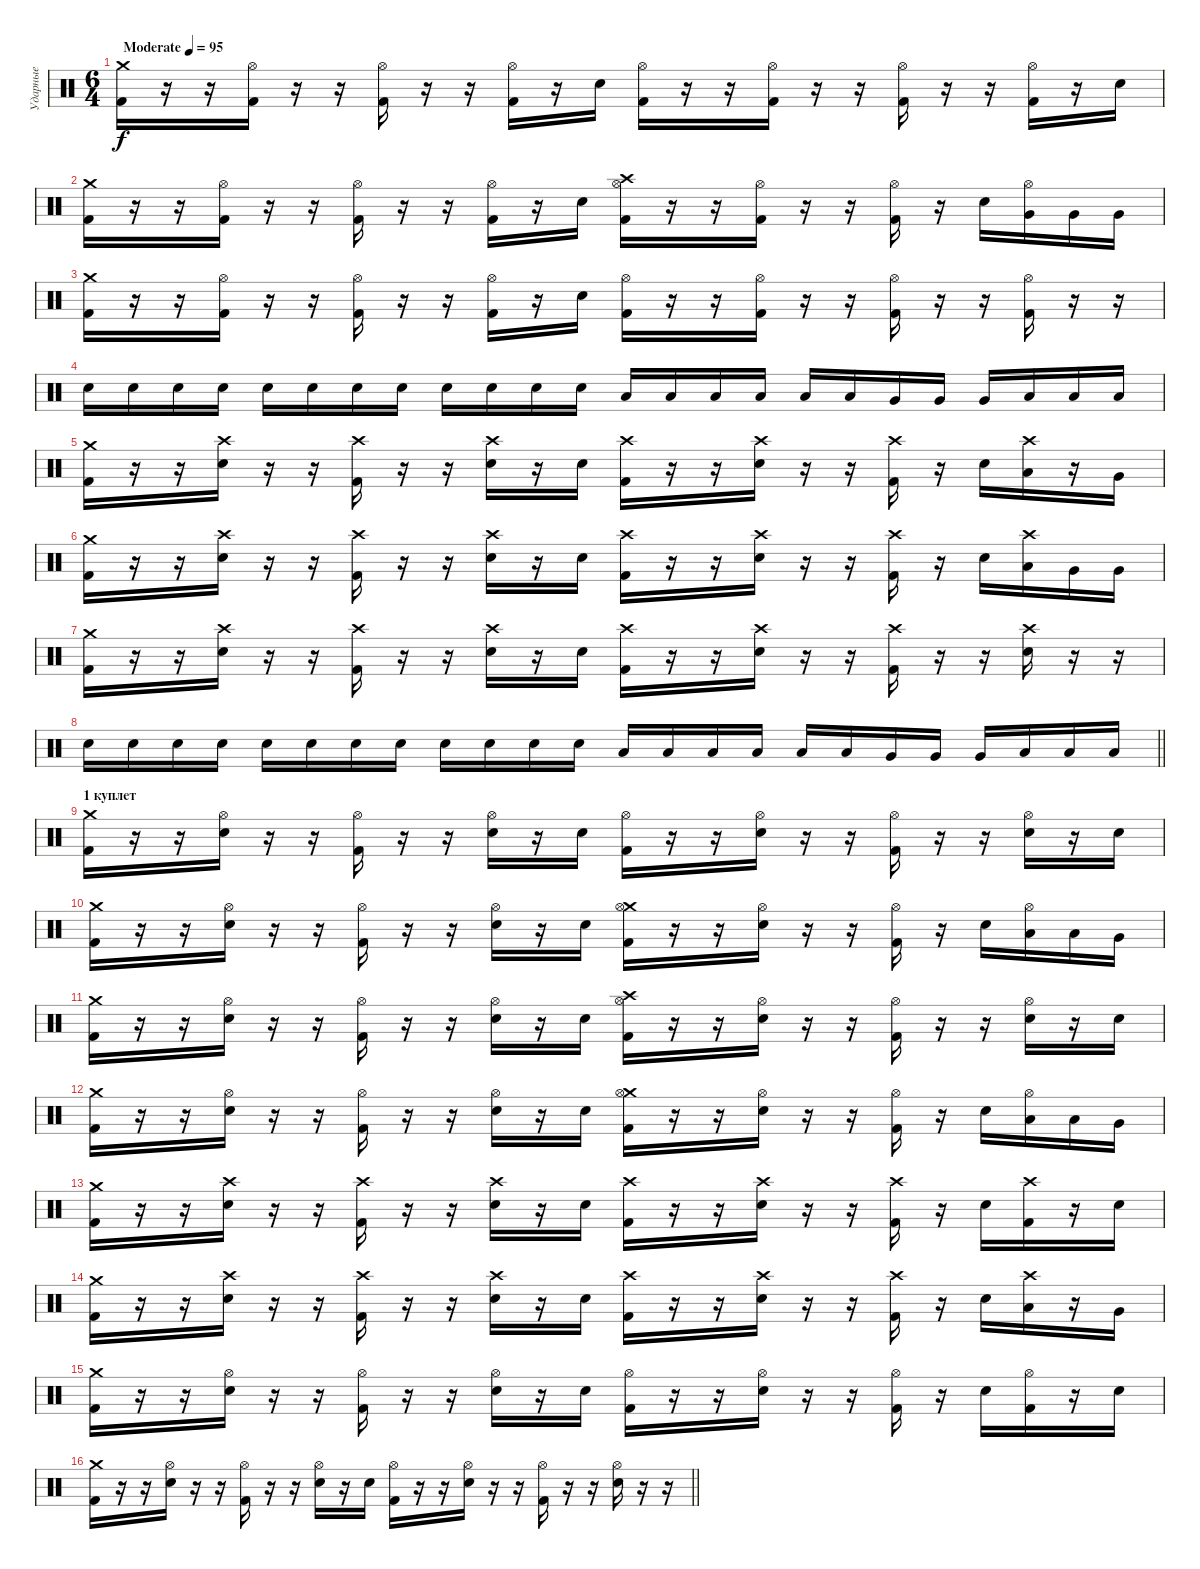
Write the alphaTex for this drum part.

\track ("Ударные" "Ударные") {instrument percussion}
\staff {score}
\articulation defaults
\ts (6 4)
\tempo (95 "Moderate")
\clef neutral
\ks c
("Crash medium (hit)" "Kick (hit) 2").16{dy f} r.16 r.16 ("Hi-Hat (open)" "Kick (hit) 2").16 r.16 r.16 ("Hi-Hat (open)" "Kick (hit) 2").16 r.16 r.16 ("Hi-Hat (open)" "Kick (hit) 2").16 r.16 "Electric Snare (hit)".16 ("Hi-Hat (open)" "Kick (hit) 2").16 r.16 r.16 ("Hi-Hat (open)" "Kick (hit) 2").16 r.16 r.16 ("Hi-Hat (open)" "Kick (hit) 2").16 r.16 r.16 ("Hi-Hat (open)" "Kick (hit) 2").16 r.16 "Electric Snare (hit)".16 |
("Crash medium (hit)" "Kick (hit) 2").16 r.16 r.16 ("Hi-Hat (open)" "Kick (hit) 2").16 r.16 r.16 ("Hi-Hat (open)" "Kick (hit) 2").16 r.16 r.16 ("Hi-Hat (open)" "Kick (hit) 2").16 r.16 "Electric Snare (hit)".16 ("Crash high (hit)" "Hi-Hat (open)" "Kick (hit) 2").16 r.16 r.16 ("Hi-Hat (open)" "Kick (hit) 2").16 r.16 r.16 ("Hi-Hat (open)" "Kick (hit) 2").16 r.16 "Electric Snare (hit)".16 ("Very Low Tom (hit)" "Hi-Hat (open)").16 "Very Low Tom (hit)".16 "Very Low Tom (hit)".16 |
("Crash medium (hit)" "Kick (hit) 2").16 r.16 r.16 ("Hi-Hat (open)" "Kick (hit) 2").16 r.16 r.16 ("Hi-Hat (open)" "Kick (hit) 2").16 r.16 r.16 ("Hi-Hat (open)" "Kick (hit) 2").16 r.16 "Electric Snare (hit)".16 ("Hi-Hat (open)" "Kick (hit) 2").16 r.16 r.16 ("Hi-Hat (open)" "Kick (hit) 2").16 r.16 r.16 ("Hi-Hat (open)" "Kick (hit) 2").16 r.16 r.16 ("Hi-Hat (open)" "Kick (hit) 2").16 r.16 r.16 |
"Electric Snare (hit)".16 "Electric Snare (hit)".16 "Electric Snare (hit)".16 "Electric Snare (hit)".16 "Electric Snare (hit)".16 "Electric Snare (hit)".16 "Electric Snare (hit)".16 "Electric Snare (hit)".16 "Electric Snare (hit)".16 "Electric Snare (hit)".16 "Electric Snare (hit)".16 "Electric Snare (hit)".16 "Low Tom (hit)".16 "Low Tom (hit)".16 "Low Tom (hit)".16 "Low Tom (hit)".16 "Low Tom (hit)".16 "Low Tom (hit)".16 "Very Low Tom (hit)".16 "Very Low Tom (hit)".16 "Very Low Tom (hit)".16 "Low Floor Tom (hit)".16 "Low Floor Tom (hit)".16 "Low Floor Tom (hit)".16 |
("Crash medium (hit)" "Kick (hit) 2").16 r.16 r.16 ("Crash high (hit)" "Electric Snare (hit)").16 r.16 r.16 ("Crash high (hit)" "Kick (hit) 2").16 r.16 r.16 ("Crash high (hit)" "Electric Snare (hit)").16 r.16 "Electric Snare (hit)".16 ("Crash high (hit)" "Kick (hit) 2").16 r.16 r.16 ("Crash high (hit)" "Electric Snare (hit)").16 r.16 r.16 ("Crash high (hit)" "Kick (hit) 2").16 r.16 "Electric Snare (hit)".16 ("Crash high (hit)" "Low Floor Tom (hit)").16 r.16 "Very Low Tom (hit)".16 |
("Crash medium (hit)" "Kick (hit) 2").16 r.16 r.16 ("Crash high (hit)" "Electric Snare (hit)").16 r.16 r.16 ("Crash high (hit)" "Kick (hit) 2").16 r.16 r.16 ("Crash high (hit)" "Electric Snare (hit)").16 r.16 "Electric Snare (hit)".16 ("Crash high (hit)" "Kick (hit) 2").16 r.16 r.16 ("Crash high (hit)" "Electric Snare (hit)").16 r.16 r.16 ("Crash high (hit)" "Kick (hit) 2").16 r.16 "Electric Snare (hit)".16 ("Crash high (hit)" "Low Floor Tom (hit)").16 "Very Low Tom (hit)".16 "Very Low Tom (hit)".16 |
("Crash medium (hit)" "Kick (hit) 2").16 r.16 r.16 ("Crash high (hit)" "Electric Snare (hit)").16 r.16 r.16 ("Crash high (hit)" "Kick (hit) 2").16 r.16 r.16 ("Crash high (hit)" "Electric Snare (hit)").16 r.16 "Electric Snare (hit)".16 ("Crash high (hit)" "Kick (hit) 2").16 r.16 r.16 ("Crash high (hit)" "Electric Snare (hit)").16 r.16 r.16 ("Crash high (hit)" "Kick (hit) 2").16 r.16 r.16 ("Crash high (hit)" "Electric Snare (hit)").16 r.16 r.16 |
\barLineRight lightlight "Electric Snare (hit)".16 "Electric Snare (hit)".16 "Electric Snare (hit)".16 "Electric Snare (hit)".16 "Electric Snare (hit)".16 "Electric Snare (hit)".16 "Electric Snare (hit)".16 "Electric Snare (hit)".16 "Electric Snare (hit)".16 "Electric Snare (hit)".16 "Electric Snare (hit)".16 "Electric Snare (hit)".16 "Low Tom (hit)".16 "Low Tom (hit)".16 "Low Tom (hit)".16 "Low Tom (hit)".16 "Low Tom (hit)".16 "Low Tom (hit)".16 "Very Low Tom (hit)".16 "Very Low Tom (hit)".16 "Very Low Tom (hit)".16 "Low Floor Tom (hit)".16 "Low Floor Tom (hit)".16 "Low Floor Tom (hit)".16
|
\section ("" "1 куплет")
("Crash medium (hit)" "Kick (hit) 2").16 r.16 r.16 ("Hi-Hat (open)" "Electric Snare (hit)").16 r.16 r.16 ("Hi-Hat (open)" "Kick (hit) 2").16 r.16 r.16 ("Hi-Hat (open)" "Electric Snare (hit)").16 r.16 "Electric Snare (hit)".16 ("Hi-Hat (open)" "Kick (hit) 2").16 r.16 r.16 ("Hi-Hat (open)" "Electric Snare (hit)").16 r.16 r.16 ("Hi-Hat (open)" "Kick (hit) 2").16 r.16 r.16 ("Hi-Hat (open)" "Electric Snare (hit)").16 r.16 "Electric Snare (hit)".16 |
("Crash medium (hit)" "Kick (hit) 2").16 r.16 r.16 ("Hi-Hat (open)" "Electric Snare (hit)").16 r.16 r.16 ("Hi-Hat (open)" "Kick (hit) 2").16 r.16 r.16 ("Hi-Hat (open)" "Electric Snare (hit)").16 r.16 "Electric Snare (hit)".16 ("Crash medium (hit)" "Hi-Hat (open)" "Kick (hit) 2").16 r.16 r.16 ("Hi-Hat (open)" "Electric Snare (hit)").16 r.16 r.16 ("Hi-Hat (open)" "Kick (hit) 2").16 r.16 "Electric Snare (hit)".16 ("Low Floor Tom (hit)" "Hi-Hat (open)").16 "Low Floor Tom (hit)".16 "Very Low Tom (hit)".16 |
("Crash medium (hit)" "Kick (hit) 2").16 r.16 r.16 ("Hi-Hat (open)" "Electric Snare (hit)").16 r.16 r.16 ("Hi-Hat (open)" "Kick (hit) 2").16 r.16 r.16 ("Hi-Hat (open)" "Electric Snare (hit)").16 r.16 "Electric Snare (hit)".16 ("Crash high (hit)" "Hi-Hat (open)" "Kick (hit) 2").16 r.16 r.16 ("Hi-Hat (open)" "Electric Snare (hit)").16 r.16 r.16 ("Hi-Hat (open)" "Kick (hit) 2").16 r.16 r.16 ("Hi-Hat (open)" "Electric Snare (hit)").16 r.16 "Electric Snare (hit)".16 |
("Crash medium (hit)" "Kick (hit) 2").16 r.16 r.16 ("Hi-Hat (open)" "Electric Snare (hit)").16 r.16 r.16 ("Hi-Hat (open)" "Kick (hit) 2").16 r.16 r.16 ("Hi-Hat (open)" "Electric Snare (hit)").16 r.16 "Electric Snare (hit)".16 ("Crash medium (hit)" "Hi-Hat (open)" "Kick (hit) 2").16 r.16 r.16 ("Hi-Hat (open)" "Electric Snare (hit)").16 r.16 r.16 ("Hi-Hat (open)" "Kick (hit) 2").16 r.16 "Electric Snare (hit)".16 ("Low Floor Tom (hit)" "Hi-Hat (open)").16 "Low Floor Tom (hit)".16 "Very Low Tom (hit)".16 |
("Crash medium (hit)" "Kick (hit) 2").16 r.16 r.16 ("Crash high (hit)" "Electric Snare (hit)").16 r.16 r.16 ("Crash high (hit)" "Kick (hit) 2").16 r.16 r.16 ("Crash high (hit)" "Electric Snare (hit)").16 r.16 "Electric Snare (hit)".16 ("Crash high (hit)" "Kick (hit) 2").16 r.16 r.16 ("Crash high (hit)" "Electric Snare (hit)").16 r.16 r.16 ("Crash high (hit)" "Kick (hit) 2").16 r.16 "Electric Snare (hit)".16 ("Crash high (hit)" "Kick (hit) 2").16 r.16 "Electric Snare (hit)".16 |
("Crash medium (hit)" "Kick (hit) 2").16 r.16 r.16 ("Crash high (hit)" "Electric Snare (hit)").16 r.16 r.16 ("Crash high (hit)" "Kick (hit) 2").16 r.16 r.16 ("Crash high (hit)" "Electric Snare (hit)").16 r.16 "Electric Snare (hit)".16 ("Crash high (hit)" "Kick (hit) 2").16 r.16 r.16 ("Crash high (hit)" "Electric Snare (hit)").16 r.16 r.16 ("Crash high (hit)" "Kick (hit) 2").16 r.16 "Electric Snare (hit)".16 ("Crash high (hit)" "Low Floor Tom (hit)").16 r.16 "Very Low Tom (hit)".16 |
("Crash medium (hit)" "Kick (hit) 2").16 r.16 r.16 ("Hi-Hat (open)" "Electric Snare (hit)").16 r.16 r.16 ("Hi-Hat (open)" "Kick (hit) 2").16 r.16 r.16 ("Hi-Hat (open)" "Electric Snare (hit)").16 r.16 "Electric Snare (hit)".16 ("Hi-Hat (open)" "Kick (hit) 2").16 r.16 r.16 ("Hi-Hat (open)" "Electric Snare (hit)").16 r.16 r.16 ("Hi-Hat (open)" "Kick (hit) 2").16 r.16 "Electric Snare (hit)".16 ("Hi-Hat (open)" "Kick (hit) 2").16 r.16 "Electric Snare (hit)".16 |
\barLineRight lightlight
("Crash medium (hit)" "Kick (hit) 2").16 r.16 r.16 ("Hi-Hat (open)" "Electric Snare (hit)").16 r.16 r.16 ("Hi-Hat (open)" "Kick (hit) 2").16 r.16 r.16 ("Hi-Hat (open)" "Electric Snare (hit)").16 r.16 "Electric Snare (hit)".16 ("Hi-Hat (open)" "Kick (hit) 2").16 r.16 r.16 ("Hi-Hat (open)" "Electric Snare (hit)").16 r.16 r.16 ("Hi-Hat (open)" "Kick (hit) 2").16 r.16 r.16 ("Hi-Hat (open)" "Electric Snare (hit)").16 r.16 r.16
